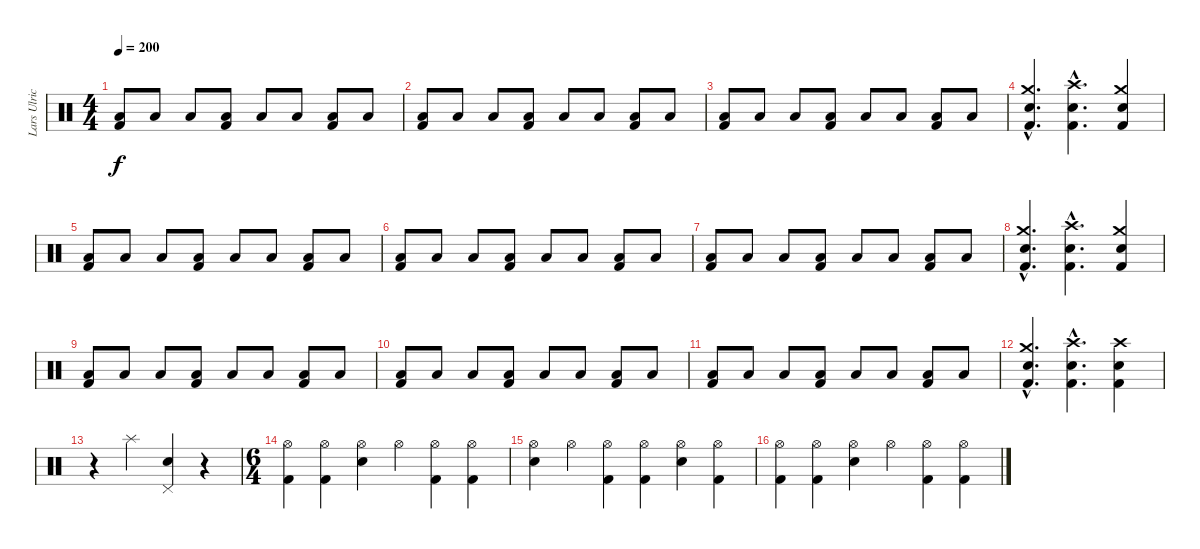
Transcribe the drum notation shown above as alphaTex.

\track ("Lars Ulrich" "Lars Ulric") {instrument percussion}
\staff {score}
\articulation defaults
\ts (4 4)
\tempo 200
\clef neutral
\ks c
("Low Floor Tom (hit)" "Kick (hit) 2").8{dy f} "Low Floor Tom (hit)".8 "Low Floor Tom (hit)".8 ("Low Floor Tom (hit)" "Kick (hit) 2").8 "Low Floor Tom (hit)".8 "Low Floor Tom (hit)".8 ("Low Floor Tom (hit)" "Kick (hit) 2").8 "Low Floor Tom (hit)".8 |
("Low Floor Tom (hit)" "Kick (hit) 2").8 "Low Floor Tom (hit)".8 "Low Floor Tom (hit)".8 ("Low Floor Tom (hit)" "Kick (hit) 2").8 "Low Floor Tom (hit)".8 "Low Floor Tom (hit)".8 ("Low Floor Tom (hit)" "Kick (hit) 2").8 "Low Floor Tom (hit)".8 |
("Low Floor Tom (hit)" "Kick (hit) 2").8 "Low Floor Tom (hit)".8 "Low Floor Tom (hit)".8 ("Low Floor Tom (hit)" "Kick (hit) 2").8 "Low Floor Tom (hit)".8 "Low Floor Tom (hit)".8 ("Low Floor Tom (hit)" "Kick (hit) 2").8 "Low Floor Tom (hit)".8 |
("Crash medium (hit)"{hac} "Electric Snare (hit)"{hac} "Kick (hit) 2"{hac}).4{d} ("Crash high (hit)"{hac} "Electric Snare (hit)"{hac} "Kick (hit) 2"{hac}).4{d} ("Crash medium (hit)" "Electric Snare (hit)" "Kick (hit) 2").4 |
("Low Floor Tom (hit)" "Kick (hit) 2").8 "Low Floor Tom (hit)".8 "Low Floor Tom (hit)".8 ("Low Floor Tom (hit)" "Kick (hit) 2").8 "Low Floor Tom (hit)".8 "Low Floor Tom (hit)".8 ("Low Floor Tom (hit)" "Kick (hit) 2").8 "Low Floor Tom (hit)".8 |
("Low Floor Tom (hit)" "Kick (hit) 2").8 "Low Floor Tom (hit)".8 "Low Floor Tom (hit)".8 ("Low Floor Tom (hit)" "Kick (hit) 2").8 "Low Floor Tom (hit)".8 "Low Floor Tom (hit)".8 ("Low Floor Tom (hit)" "Kick (hit) 2").8 "Low Floor Tom (hit)".8 |
("Low Floor Tom (hit)" "Kick (hit) 2").8 "Low Floor Tom (hit)".8 "Low Floor Tom (hit)".8 ("Low Floor Tom (hit)" "Kick (hit) 2").8 "Low Floor Tom (hit)".8 "Low Floor Tom (hit)".8 ("Low Floor Tom (hit)" "Kick (hit) 2").8 "Low Floor Tom (hit)".8 |
("Crash medium (hit)"{hac} "Electric Snare (hit)"{hac} "Kick (hit) 2"{hac}).4{d} ("Crash high (hit)"{hac} "Electric Snare (hit)"{hac} "Kick (hit) 2"{hac}).4{d} ("Crash medium (hit)" "Electric Snare (hit)" "Kick (hit) 2").4 |
("Low Floor Tom (hit)" "Kick (hit) 2").8 "Low Floor Tom (hit)".8 "Low Floor Tom (hit)".8 ("Low Floor Tom (hit)" "Kick (hit) 2").8 "Low Floor Tom (hit)".8 "Low Floor Tom (hit)".8 ("Low Floor Tom (hit)" "Kick (hit) 2").8 "Low Floor Tom (hit)".8 |
("Low Floor Tom (hit)" "Kick (hit) 2").8 "Low Floor Tom (hit)".8 "Low Floor Tom (hit)".8 ("Low Floor Tom (hit)" "Kick (hit) 2").8 "Low Floor Tom (hit)".8 "Low Floor Tom (hit)".8 ("Low Floor Tom (hit)" "Kick (hit) 2").8 "Low Floor Tom (hit)".8 |
("Low Floor Tom (hit)" "Kick (hit) 2").8 "Low Floor Tom (hit)".8 "Low Floor Tom (hit)".8 ("Low Floor Tom (hit)" "Kick (hit) 2").8 "Low Floor Tom (hit)".8 "Low Floor Tom (hit)".8 ("Low Floor Tom (hit)" "Kick (hit) 2").8 "Low Floor Tom (hit)".8 |
("Crash medium (hit)"{hac} "Electric Snare (hit)"{hac} "Kick (hit) 2"{hac}).4{d} ("Crash high (hit)"{hac} "Electric Snare (hit)"{hac} "Kick (hit) 2"{hac}).4{d} ("Crash high (hit)" "Electric Snare (hit)" "Kick (hit) 2").4 |
r.4 "Splash (hit)".4 ("Pedal Hi-Hat (hit)" "Electric Snare (hit)").4 r.4 |
\ts (6 4)
("Hi-Hat (open)" "Kick (hit) 2").4 ("Hi-Hat (open)" "Kick (hit) 2").4 ("Hi-Hat (open)" "Electric Snare (hit)").4 "Hi-Hat (open)".4 ("Hi-Hat (open)" "Kick (hit) 2").4 ("Hi-Hat (open)" "Kick (hit) 2").4 |
("Hi-Hat (open)" "Electric Snare (hit)").4 "Hi-Hat (open)".4 ("Hi-Hat (open)" "Kick (hit) 2").4 ("Hi-Hat (open)" "Kick (hit) 2").4 ("Hi-Hat (open)" "Electric Snare (hit)").4 ("Hi-Hat (open)" "Kick (hit) 2").4 |
("Hi-Hat (open)" "Kick (hit) 2").4 ("Hi-Hat (open)" "Kick (hit) 2").4 ("Hi-Hat (open)" "Electric Snare (hit)").4 "Hi-Hat (open)".4 ("Hi-Hat (open)" "Kick (hit) 2").4 ("Hi-Hat (open)" "Kick (hit) 2").4
